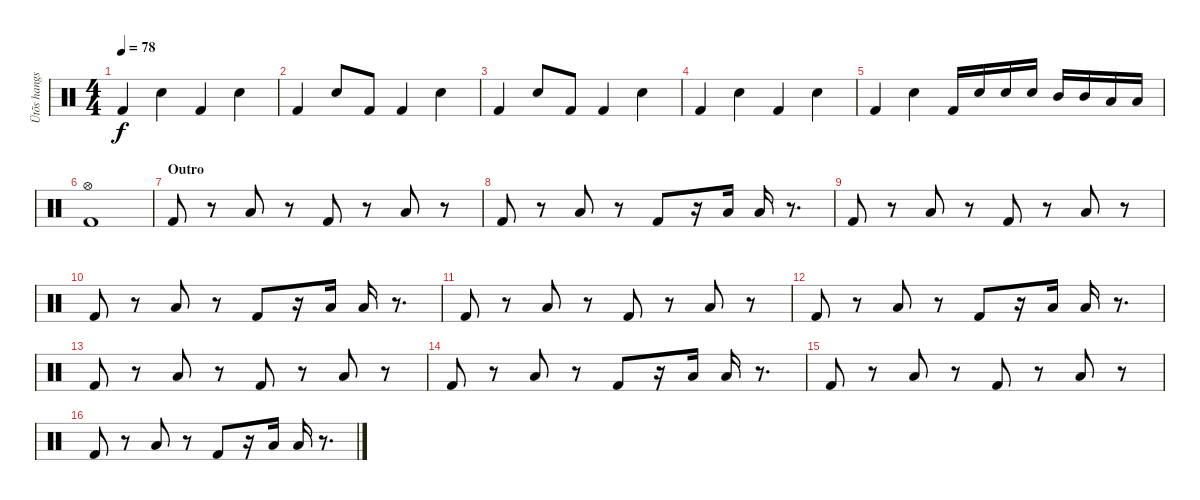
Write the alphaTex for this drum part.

\track ("Ütõs hangszer" "Ütõs hangs") {instrument percussion}
\staff {score}
\articulation defaults
\ts (4 4)
\tempo 78
\clef neutral
\ks c "Kick (hit) 2".4{dy f} "Snare (hit) 2".4 "Kick (hit) 2".4 "Snare (hit) 2".4
|
"Kick (hit) 2".4 "Snare (hit) 2".8 "Kick (hit) 2".8 "Kick (hit) 2".4 "Snare (hit) 2".4 |
"Kick (hit) 2".4 "Snare (hit) 2".8 "Kick (hit) 2".8 "Kick (hit) 2".4 "Snare (hit) 2".4 |
"Kick (hit) 2".4 "Snare (hit) 2".4 "Kick (hit) 2".4 "Snare (hit) 2".4 |
"Kick (hit) 2".4 "Snare (hit) 2".4 "Kick (hit) 2".16 "Snare (hit) 2".16 "Snare (hit) 2".16 "Snare (hit) 2".16 "Mid Tom (hit)".16 "Mid Tom (hit)".16 "Low Tom (hit)".16 "Low Tom (hit)".16 |
("Hi-Hat (open)" "Kick (hit) 2").1 |
\section ("" "Outro")
"Kick (hit) 2".8 r.8 "Low Tom (hit)".8 r.8 "Kick (hit) 2".8 r.8 "Low Tom (hit)".8 r.8 |
"Kick (hit) 2".8 r.8 "Low Tom (hit)".8 r.8 "Kick (hit) 2".8 r.16 "Low Tom (hit)".16 "Low Tom (hit)".16 r.8{d} |
"Kick (hit) 2".8 r.8 "Low Tom (hit)".8 r.8 "Kick (hit) 2".8 r.8 "Low Tom (hit)".8 r.8 |
"Kick (hit) 2".8 r.8 "Low Tom (hit)".8 r.8 "Kick (hit) 2".8 r.16 "Low Tom (hit)".16 "Low Tom (hit)".16 r.8{d} |
"Kick (hit) 2".8 r.8 "Low Tom (hit)".8 r.8 "Kick (hit) 2".8 r.8 "Low Tom (hit)".8 r.8 |
"Kick (hit) 2".8 r.8 "Low Tom (hit)".8 r.8 "Kick (hit) 2".8 r.16 "Low Tom (hit)".16 "Low Tom (hit)".16 r.8{d} |
"Kick (hit) 2".8 r.8 "Low Tom (hit)".8 r.8 "Kick (hit) 2".8 r.8 "Low Tom (hit)".8 r.8 |
"Kick (hit) 2".8 r.8 "Low Tom (hit)".8 r.8 "Kick (hit) 2".8 r.16 "Low Tom (hit)".16 "Low Tom (hit)".16 r.8{d} |
"Kick (hit) 2".8 r.8 "Low Tom (hit)".8 r.8 "Kick (hit) 2".8 r.8 "Low Tom (hit)".8 r.8 |
"Kick (hit) 2".8 r.8 "Low Tom (hit)".8 r.8 "Kick (hit) 2".8 r.16 "Low Tom (hit)".16 "Low Tom (hit)".16 r.8{d}
